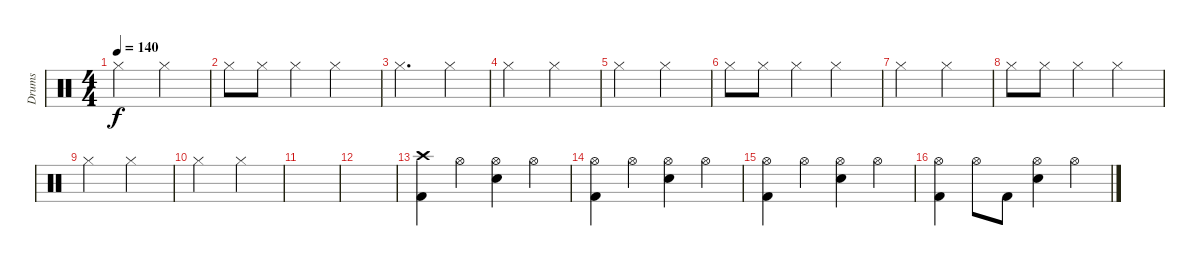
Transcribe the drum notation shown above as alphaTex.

\track ("Drums" "Drums") {instrument percussion}
\staff {score}
\articulation defaults
\ts (4 4)
\tempo 140
\clef neutral
\ks c "Hi-Hat (closed)".2{dy f} "Hi-Hat (closed)".2
|
"Hi-Hat (closed)".8 "Hi-Hat (closed)".8 "Hi-Hat (closed)".4 "Hi-Hat (closed)".2 |
"Hi-Hat (closed)".2{d} "Hi-Hat (closed)".4 |
"Hi-Hat (closed)".2 "Hi-Hat (closed)".2 |
"Hi-Hat (closed)".2 "Hi-Hat (closed)".2 |
"Hi-Hat (closed)".8 "Hi-Hat (closed)".8 "Hi-Hat (closed)".4 "Hi-Hat (closed)".2 |
"Hi-Hat (closed)".2 "Hi-Hat (closed)".2 |
"Hi-Hat (closed)".8 "Hi-Hat (closed)".8 "Hi-Hat (closed)".4 "Hi-Hat (closed)".2 |
"Hi-Hat (closed)".2 "Hi-Hat (closed)".2 |
"Hi-Hat (closed)".2 "Hi-Hat (closed)".2 |
|
|
("Crash high (hit)" "Kick (hit) 2").4{volume 14} "Hi-Hat (open)".4 ("Snare (hit) 2" "Hi-Hat (open)").4 "Hi-Hat (open)".4 |
("Hi-Hat (open)" "Kick (hit) 2").4 "Hi-Hat (open)".4 ("Snare (hit) 2" "Hi-Hat (open)").4 "Hi-Hat (open)".4 |
("Hi-Hat (open)" "Kick (hit) 2").4 "Hi-Hat (open)".4 ("Snare (hit) 2" "Hi-Hat (open)").4 "Hi-Hat (open)".4 |
("Hi-Hat (open)" "Kick (hit) 2").4 "Hi-Hat (open)".8 "Kick (hit) 2".8 ("Snare (hit) 2" "Hi-Hat (open)").4 "Hi-Hat (open)".4
